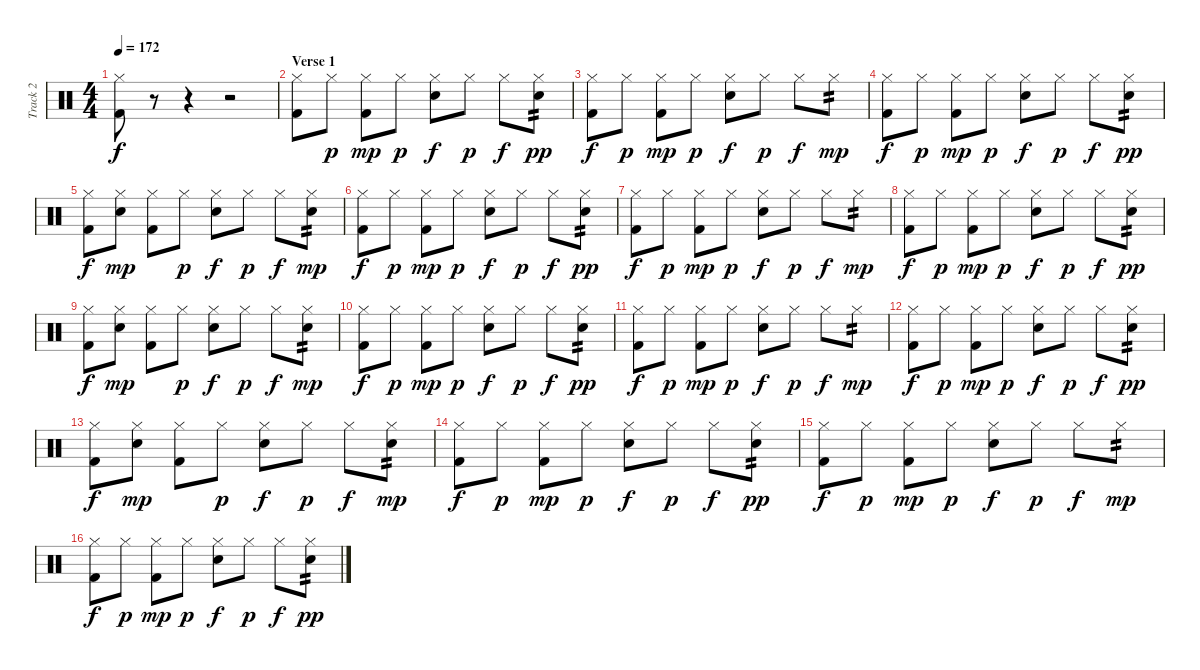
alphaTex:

\track ("Track 2" "Track 2") {instrument percussion}
\staff {score}
\articulation defaults
\ts (4 4)
\tempo 172
\clef neutral
\ks c
("Hi-Hat (closed)" "Kick (hit) 2").8{dy f} r.8 r.4 r.2 |
\section ("" "Verse 1")
("Hi-Hat (closed)" "Kick (hit) 2").8 "Hi-Hat (closed)".8{dy p} ("Hi-Hat (closed)" "Kick (hit) 2").8{dy mp} "Hi-Hat (closed)".8{dy p} ("Hi-Hat (closed)" "Snare (hit) 2").8{dy f} "Hi-Hat (closed)".8{dy p} "Hi-Hat (closed)".8{dy f} ("Hi-Hat (closed)" "Snare (hit) 2").8{tp 2 dy pp} |
("Hi-Hat (closed)" "Kick (hit) 2").8{dy f} "Hi-Hat (closed)".8{dy p} ("Hi-Hat (closed)" "Kick (hit) 2").8{dy mp} "Hi-Hat (closed)".8{dy p} ("Hi-Hat (closed)" "Snare (hit) 2").8{dy f} "Hi-Hat (closed)".8{dy p} "Hi-Hat (closed)".8{dy f} "Hi-Hat (closed)".8{tp 2 dy mp} |
("Hi-Hat (closed)" "Kick (hit) 2").8{dy f} "Hi-Hat (closed)".8{dy p} ("Hi-Hat (closed)" "Kick (hit) 2").8{dy mp} "Hi-Hat (closed)".8{dy p} ("Hi-Hat (closed)" "Snare (hit) 2").8{dy f} "Hi-Hat (closed)".8{dy p} "Hi-Hat (closed)".8{dy f} ("Hi-Hat (closed)" "Snare (hit) 2").8{tp 2 dy pp} |
("Hi-Hat (closed)" "Kick (hit) 2").8{dy f} ("Hi-Hat (closed)" "Snare (hit) 2").8{dy mp} ("Hi-Hat (closed)" "Kick (hit) 2").8 "Hi-Hat (closed)".8{dy p} ("Hi-Hat (closed)" "Snare (hit) 2").8{dy f} "Hi-Hat (closed)".8{dy p} "Hi-Hat (closed)".8{dy f} ("Hi-Hat (closed)" "Snare (hit) 2").8{tp 2 dy mp} |
("Hi-Hat (closed)" "Kick (hit) 2").8{dy f} "Hi-Hat (closed)".8{dy p} ("Hi-Hat (closed)" "Kick (hit) 2").8{dy mp} "Hi-Hat (closed)".8{dy p} ("Hi-Hat (closed)" "Snare (hit) 2").8{dy f} "Hi-Hat (closed)".8{dy p} "Hi-Hat (closed)".8{dy f} ("Hi-Hat (closed)" "Snare (hit) 2").8{tp 2 dy pp} |
("Hi-Hat (closed)" "Kick (hit) 2").8{dy f} "Hi-Hat (closed)".8{dy p} ("Hi-Hat (closed)" "Kick (hit) 2").8{dy mp} "Hi-Hat (closed)".8{dy p} ("Hi-Hat (closed)" "Snare (hit) 2").8{dy f} "Hi-Hat (closed)".8{dy p} "Hi-Hat (closed)".8{dy f} "Hi-Hat (closed)".8{tp 2 dy mp} |
("Hi-Hat (closed)" "Kick (hit) 2").8{dy f} "Hi-Hat (closed)".8{dy p} ("Hi-Hat (closed)" "Kick (hit) 2").8{dy mp} "Hi-Hat (closed)".8{dy p} ("Hi-Hat (closed)" "Snare (hit) 2").8{dy f} "Hi-Hat (closed)".8{dy p} "Hi-Hat (closed)".8{dy f} ("Hi-Hat (closed)" "Snare (hit) 2").8{tp 2 dy pp} |
("Hi-Hat (closed)" "Kick (hit) 2").8{dy f} ("Hi-Hat (closed)" "Snare (hit) 2").8{dy mp} ("Hi-Hat (closed)" "Kick (hit) 2").8 "Hi-Hat (closed)".8{dy p} ("Hi-Hat (closed)" "Snare (hit) 2").8{dy f} "Hi-Hat (closed)".8{dy p} "Hi-Hat (closed)".8{dy f} ("Hi-Hat (closed)" "Snare (hit) 2").8{tp 2 dy mp} |
("Hi-Hat (closed)" "Kick (hit) 2").8{dy f} "Hi-Hat (closed)".8{dy p} ("Hi-Hat (closed)" "Kick (hit) 2").8{dy mp} "Hi-Hat (closed)".8{dy p} ("Hi-Hat (closed)" "Snare (hit) 2").8{dy f} "Hi-Hat (closed)".8{dy p} "Hi-Hat (closed)".8{dy f} ("Hi-Hat (closed)" "Snare (hit) 2").8{tp 2 dy pp} |
("Hi-Hat (closed)" "Kick (hit) 2").8{dy f} "Hi-Hat (closed)".8{dy p} ("Hi-Hat (closed)" "Kick (hit) 2").8{dy mp} "Hi-Hat (closed)".8{dy p} ("Hi-Hat (closed)" "Snare (hit) 2").8{dy f} "Hi-Hat (closed)".8{dy p} "Hi-Hat (closed)".8{dy f} "Hi-Hat (closed)".8{tp 2 dy mp} |
("Hi-Hat (closed)" "Kick (hit) 2").8{dy f} "Hi-Hat (closed)".8{dy p} ("Hi-Hat (closed)" "Kick (hit) 2").8{dy mp} "Hi-Hat (closed)".8{dy p} ("Hi-Hat (closed)" "Snare (hit) 2").8{dy f} "Hi-Hat (closed)".8{dy p} "Hi-Hat (closed)".8{dy f} ("Hi-Hat (closed)" "Snare (hit) 2").8{tp 2 dy pp} |
("Hi-Hat (closed)" "Kick (hit) 2").8{dy f} ("Hi-Hat (closed)" "Snare (hit) 2").8{dy mp} ("Hi-Hat (closed)" "Kick (hit) 2").8 "Hi-Hat (closed)".8{dy p} ("Hi-Hat (closed)" "Snare (hit) 2").8{dy f} "Hi-Hat (closed)".8{dy p} "Hi-Hat (closed)".8{dy f} ("Hi-Hat (closed)" "Snare (hit) 2").8{tp 2 dy mp} |
("Hi-Hat (closed)" "Kick (hit) 2").8{dy f} "Hi-Hat (closed)".8{dy p} ("Hi-Hat (closed)" "Kick (hit) 2").8{dy mp} "Hi-Hat (closed)".8{dy p} ("Hi-Hat (closed)" "Snare (hit) 2").8{dy f} "Hi-Hat (closed)".8{dy p} "Hi-Hat (closed)".8{dy f} ("Hi-Hat (closed)" "Snare (hit) 2").8{tp 2 dy pp} |
("Hi-Hat (closed)" "Kick (hit) 2").8{dy f} "Hi-Hat (closed)".8{dy p} ("Hi-Hat (closed)" "Kick (hit) 2").8{dy mp} "Hi-Hat (closed)".8{dy p} ("Hi-Hat (closed)" "Snare (hit) 2").8{dy f} "Hi-Hat (closed)".8{dy p} "Hi-Hat (closed)".8{dy f} "Hi-Hat (closed)".8{tp 2 dy mp} |
("Hi-Hat (closed)" "Kick (hit) 2").8{dy f} "Hi-Hat (closed)".8{dy p} ("Hi-Hat (closed)" "Kick (hit) 2").8{dy mp} "Hi-Hat (closed)".8{dy p} ("Hi-Hat (closed)" "Snare (hit) 2").8{dy f} "Hi-Hat (closed)".8{dy p} "Hi-Hat (closed)".8{dy f} ("Hi-Hat (closed)" "Snare (hit) 2").8{tp 2 dy pp}
